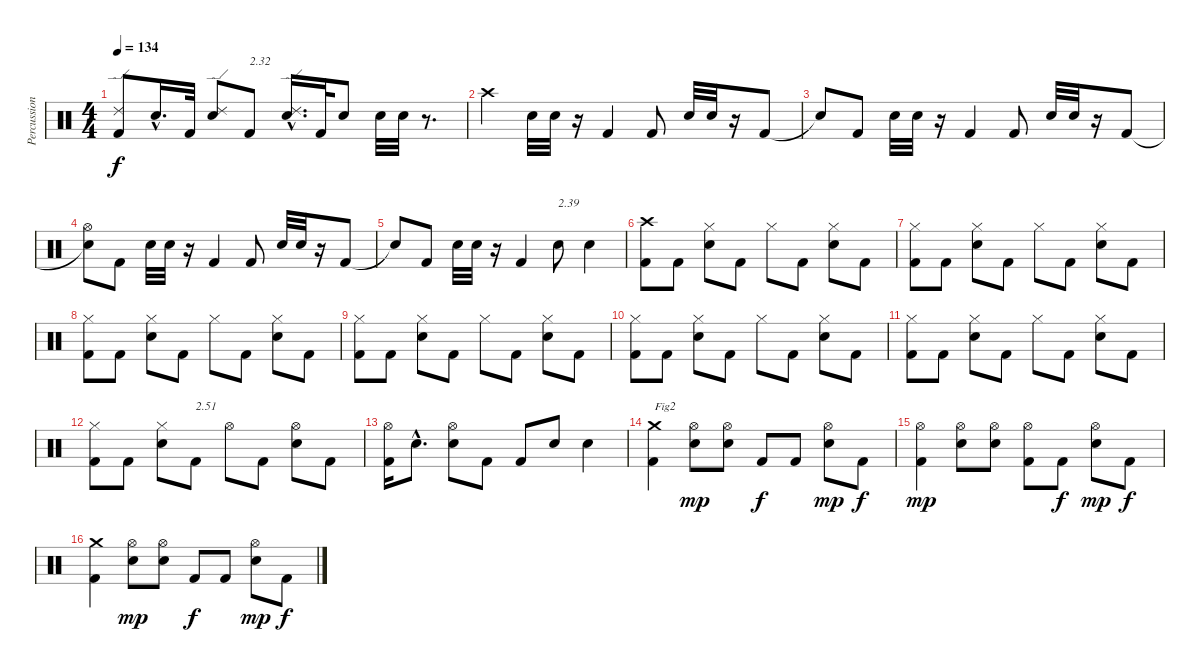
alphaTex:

\track ("Percussions" "Percussion") {instrument percussion}
\staff {score}
\articulation defaults
\ts (4 4)
\tempo 134
\clef neutral
\ks c
("Kick (hit) 2" "Ride (edge) 2").8{dy f} "Electric Snare (hit)"{hac}.16{d} "Kick (hit) 2".32 ("Electric Snare (hit)" "Ride (edge) 2").8 "Kick (hit) 2".8{txt "2.32"} ("Electric Snare (hit)"{hac} "Ride (edge) 2"{hac}).16{d} "Kick (hit) 2".32 "Electric Snare (hit)".8 "Electric Snare (hit)".32 "Electric Snare (hit)".32 r.8{d} |
"Crash high (hit)".4 "Electric Snare (hit)".32 "Electric Snare (hit)".32 r.16 "Kick (hit) 2".4 "Kick (hit) 2".8 "Electric Snare (hit)".32 "Electric Snare (hit)".32 r.16 "Kick (hit) 2".8 |
"Snare (hit)"{t}.8 "Kick (hit) 2".8 "Electric Snare (hit)".32 "Electric Snare (hit)".32 r.16 "Kick (hit) 2".4 "Kick (hit) 2".8 "Electric Snare (hit)".32 "Electric Snare (hit)".32 r.16 "Kick (hit) 2".8 |
("Snare (hit)"{t} "Hi-Hat (open)").8 "Kick (hit) 2".8 "Electric Snare (hit)".32 "Electric Snare (hit)".32 r.16 "Kick (hit) 2".4 "Kick (hit) 2".8 "Electric Snare (hit)".32 "Electric Snare (hit)".32 r.16 "Kick (hit) 2".8 |
"Snare (hit)"{t}.8 "Kick (hit) 2".8 "Electric Snare (hit)".32 "Electric Snare (hit)".32 r.16 "Kick (hit) 2".4 "Electric Snare (hit)".8{txt "2.39"} "Electric Snare (hit)".4 |
("Kick (hit) 2" "Crash high (hit)").8 "Kick (hit) 2".8 ("Electric Snare (hit)" "Hi-Hat (closed)").8 "Kick (hit) 2".8 "Hi-Hat (closed)".8 "Kick (hit) 2".8 ("Electric Snare (hit)" "Hi-Hat (closed)").8 "Kick (hit) 2".8 |
("Kick (hit) 2" "Hi-Hat (closed)").8 "Kick (hit) 2".8 ("Electric Snare (hit)" "Hi-Hat (closed)").8 "Kick (hit) 2".8 "Hi-Hat (closed)".8 "Kick (hit) 2".8 ("Electric Snare (hit)" "Hi-Hat (closed)").8 "Kick (hit) 2".8 |
("Kick (hit) 2" "Hi-Hat (closed)").8 "Kick (hit) 2".8 ("Electric Snare (hit)" "Hi-Hat (closed)").8 "Kick (hit) 2".8 "Hi-Hat (closed)".8 "Kick (hit) 2".8 ("Electric Snare (hit)" "Hi-Hat (closed)").8 "Kick (hit) 2".8 |
("Kick (hit) 2" "Hi-Hat (closed)").8 "Kick (hit) 2".8 ("Electric Snare (hit)" "Hi-Hat (closed)").8 "Kick (hit) 2".8 "Hi-Hat (closed)".8 "Kick (hit) 2".8 ("Electric Snare (hit)" "Hi-Hat (closed)").8 "Kick (hit) 2".8 |
("Kick (hit) 2" "Hi-Hat (closed)").8 "Kick (hit) 2".8 ("Electric Snare (hit)" "Hi-Hat (closed)").8 "Kick (hit) 2".8 "Hi-Hat (closed)".8 "Kick (hit) 2".8 ("Electric Snare (hit)" "Hi-Hat (closed)").8 "Kick (hit) 2".8 |
("Kick (hit) 2" "Hi-Hat (closed)").8 "Kick (hit) 2".8 ("Electric Snare (hit)" "Hi-Hat (closed)").8 "Kick (hit) 2".8 "Hi-Hat (closed)".8 "Kick (hit) 2".8 ("Electric Snare (hit)" "Hi-Hat (closed)").8 "Kick (hit) 2".8 |
("Kick (hit) 2" "Hi-Hat (closed)").8 "Kick (hit) 2".8 ("Electric Snare (hit)" "Hi-Hat (closed)").8 "Kick (hit) 2".8{txt "2.51"} "Hi-Hat (open)".8 "Kick (hit) 2".8 ("Electric Snare (hit)" "Hi-Hat (open)").8 "Kick (hit) 2".8 |
("Kick (hit) 2" "Hi-Hat (open)").16 "Electric Snare (hit)"{hac}.8{d} ("Electric Snare (hit)" "Hi-Hat (open)").8 "Kick (hit) 2".8 "Kick (hit) 2".8 "Electric Snare (hit)".8 "Electric Snare (hit)".4 |
("Kick (hit) 2" "Crash medium (hit)").4{txt "Fig2"} ("Electric Snare (hit)" "Hi-Hat (open)").8{dy mp} ("Electric Snare (hit)" "Hi-Hat (open)").8 "Kick (hit) 2".8{dy f} "Kick (hit) 2".8 ("Electric Snare (hit)" "Hi-Hat (open)").8{dy mp} "Kick (hit) 2".8{dy f} |
("Kick (hit) 2" "Hi-Hat (open)").4{dy mp} ("Electric Snare (hit)" "Hi-Hat (open)").8 ("Electric Snare (hit)" "Hi-Hat (open)").8 ("Kick (hit) 2" "Hi-Hat (open)").8 "Kick (hit) 2".8{dy f} ("Electric Snare (hit)" "Hi-Hat (open)").8{dy mp} "Kick (hit) 2".8{dy f} |
("Kick (hit) 2" "Crash medium (hit)").4 ("Electric Snare (hit)" "Hi-Hat (open)").8{dy mp} ("Electric Snare (hit)" "Hi-Hat (open)").8 "Kick (hit) 2".8{dy f} "Kick (hit) 2".8 ("Electric Snare (hit)" "Hi-Hat (open)").8{dy mp} "Kick (hit) 2".8{dy f}
